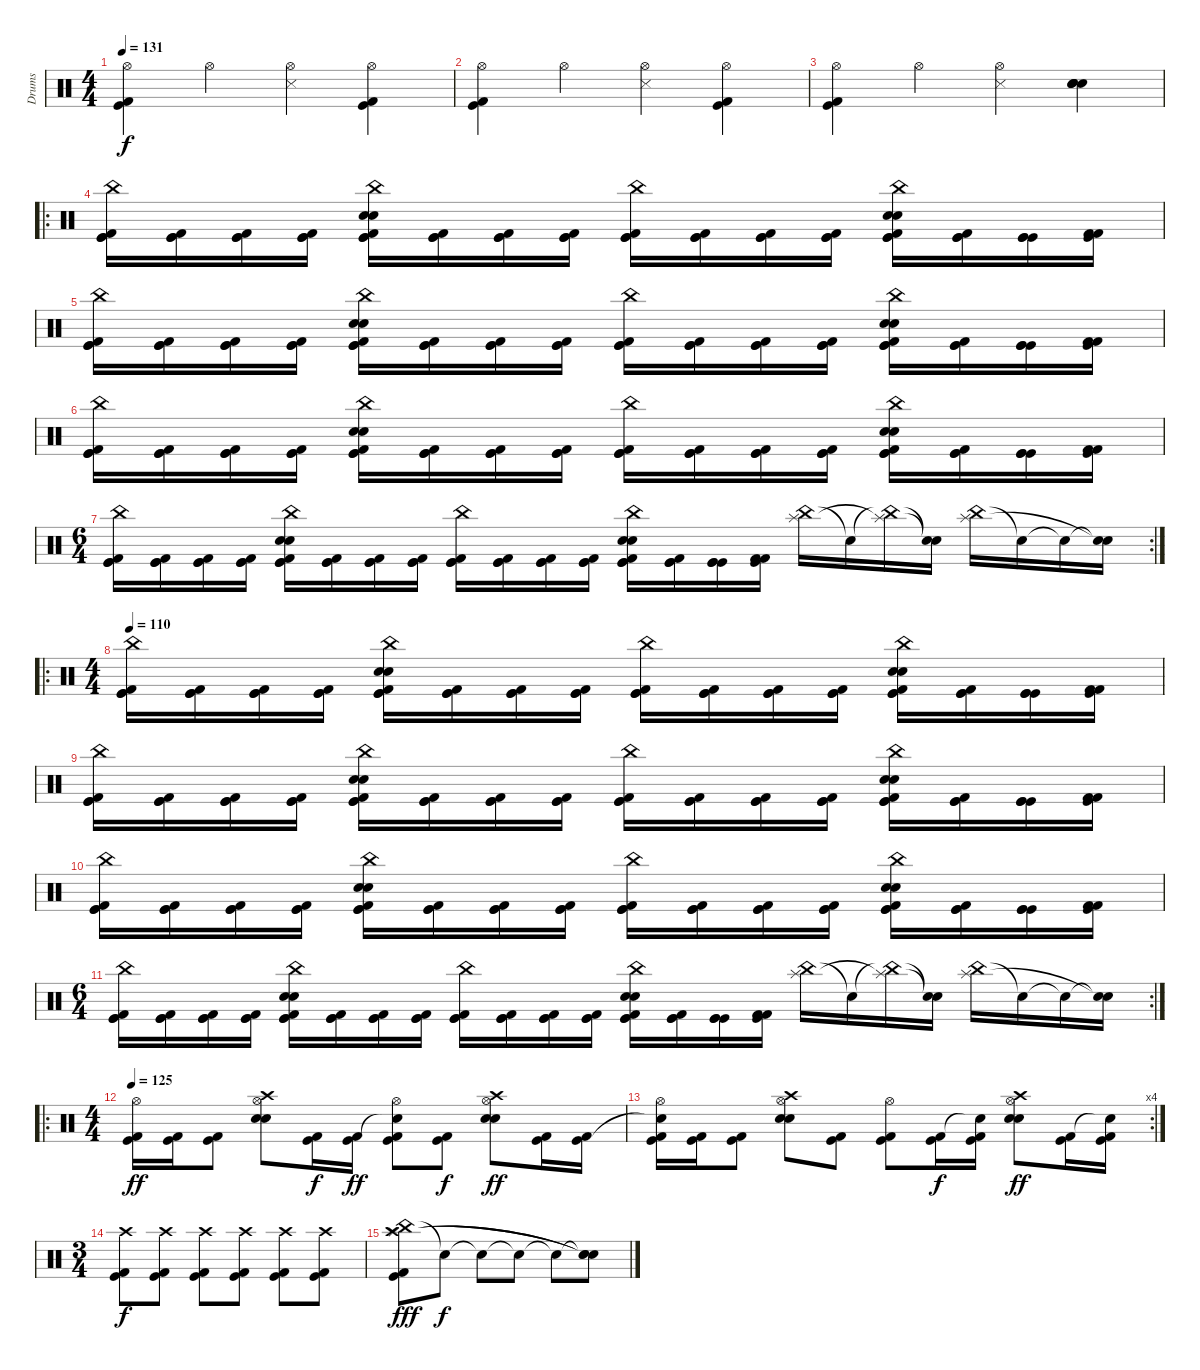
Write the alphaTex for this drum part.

\track ("Drums" "Drums") {instrument percussion}
\staff {score}
\articulation defaults
\ts (4 4)
\tempo 131
\clef neutral
\ks c
("Hi-Hat (open)" "Kick (hit)" "Kick (hit) 2").4{dy f} "Hi-Hat (open)".4 ("Hi-Hat (open)" "Snare (side stick) 3").4 ("Hi-Hat (open)" "Kick (hit)" "Kick (hit) 2").4 |
("Hi-Hat (open)" "Kick (hit)" "Kick (hit) 2").4 "Hi-Hat (open)".4 ("Hi-Hat (open)" "Snare (side stick) 3").4 ("Hi-Hat (open)" "Kick (hit)" "Kick (hit) 2").4 |
("Hi-Hat (open)" "Kick (hit)" "Kick (hit) 2").4 "Hi-Hat (open)".4 ("Hi-Hat (open)" "Snare (side stick) 3").4 ("Snare (hit) 2" "Snare (hit) 2" "Electric Snare (hit)" "Electric Snare (hit)").4 |
\ro
("China (hit)" "Kick (hit)" "Kick (hit) 2" "Kick (hit)").16 ("Kick (hit)" "Kick (hit)" "Kick (hit) 2").16 ("Kick (hit)" "Kick (hit)" "Kick (hit) 2").16 ("Kick (hit)" "Kick (hit)" "Kick (hit) 2").16 ("China (hit)" "Kick (hit)" "Snare (hit) 2" "Electric Snare (hit)" "Kick (hit) 2" "Kick (hit)").16 ("Kick (hit)" "Kick (hit) 2" "Kick (hit)").16 ("Kick (hit)" "Kick (hit) 2" "Kick (hit)").16 ("Kick (hit)" "Kick (hit) 2" "Kick (hit)").16 ("China (hit)" "Kick (hit)" "Kick (hit) 2" "Kick (hit)").16 ("Kick (hit)" "Kick (hit) 2" "Kick (hit)").16 ("Kick (hit)" "Kick (hit) 2" "Kick (hit)").16 ("Kick (hit)" "Kick (hit)" "Kick (hit) 2").16 ("China (hit)" "Kick (hit)" "Snare (hit) 2" "Electric Snare (hit)" "Kick (hit) 2" "Kick (hit)").16 ("Kick (hit)" "Kick (hit) 2" "Kick (hit)").16 ("Kick (hit)" "Kick (hit)" "Kick (hit)").16 ("Kick (hit)" "Kick (hit) 2" "Kick (hit) 2").16 |
("China (hit)" "Kick (hit)" "Kick (hit) 2" "Kick (hit)").16 ("Kick (hit)" "Kick (hit)" "Kick (hit) 2").16 ("Kick (hit)" "Kick (hit)" "Kick (hit) 2").16 ("Kick (hit)" "Kick (hit)" "Kick (hit) 2").16 ("China (hit)" "Kick (hit)" "Snare (hit) 2" "Electric Snare (hit)" "Kick (hit) 2" "Kick (hit)").16 ("Kick (hit)" "Kick (hit) 2" "Kick (hit)").16 ("Kick (hit)" "Kick (hit) 2" "Kick (hit)").16 ("Kick (hit)" "Kick (hit) 2" "Kick (hit)").16 ("China (hit)" "Kick (hit)" "Kick (hit) 2" "Kick (hit)").16 ("Kick (hit)" "Kick (hit) 2" "Kick (hit)").16 ("Kick (hit)" "Kick (hit) 2" "Kick (hit)").16 ("Kick (hit)" "Kick (hit)" "Kick (hit) 2").16 ("China (hit)" "Kick (hit)" "Snare (hit) 2" "Electric Snare (hit)" "Kick (hit) 2" "Kick (hit)").16 ("Kick (hit)" "Kick (hit) 2" "Kick (hit)").16 ("Kick (hit)" "Kick (hit)" "Kick (hit)").16 ("Kick (hit)" "Kick (hit) 2" "Kick (hit) 2").16 |
("China (hit)" "Kick (hit)" "Kick (hit) 2" "Kick (hit)").16 ("Kick (hit)" "Kick (hit)" "Kick (hit) 2").16 ("Kick (hit)" "Kick (hit)" "Kick (hit) 2").16 ("Kick (hit)" "Kick (hit)" "Kick (hit) 2").16 ("China (hit)" "Kick (hit)" "Snare (hit) 2" "Electric Snare (hit)" "Kick (hit) 2" "Kick (hit)").16 ("Kick (hit)" "Kick (hit) 2" "Kick (hit)").16 ("Kick (hit)" "Kick (hit) 2" "Kick (hit)").16 ("Kick (hit)" "Kick (hit) 2" "Kick (hit)").16 ("China (hit)" "Kick (hit)" "Kick (hit) 2" "Kick (hit)").16 ("Kick (hit)" "Kick (hit) 2" "Kick (hit)").16 ("Kick (hit)" "Kick (hit) 2" "Kick (hit)").16 ("Kick (hit)" "Kick (hit)" "Kick (hit) 2").16 ("China (hit)" "Kick (hit)" "Snare (hit) 2" "Electric Snare (hit)" "Kick (hit) 2" "Kick (hit)").16 ("Kick (hit)" "Kick (hit) 2" "Kick (hit)").16 ("Kick (hit)" "Kick (hit)" "Kick (hit)").16 ("Kick (hit)" "Kick (hit) 2" "Kick (hit) 2").16 |
\rc 2
\ts (6 4)
("China (hit)" "Kick (hit)" "Kick (hit) 2" "Kick (hit)").16 ("Kick (hit)" "Kick (hit)" "Kick (hit) 2").16 ("Kick (hit)" "Kick (hit)" "Kick (hit) 2").16 ("Kick (hit)" "Kick (hit)" "Kick (hit) 2").16 ("China (hit)" "Kick (hit)" "Snare (hit) 2" "Electric Snare (hit)" "Kick (hit) 2" "Kick (hit)").16 ("Kick (hit)" "Kick (hit) 2" "Kick (hit)").16 ("Kick (hit)" "Kick (hit) 2" "Kick (hit)").16 ("Kick (hit)" "Kick (hit) 2" "Kick (hit)").16 ("China (hit)" "Kick (hit)" "Kick (hit) 2" "Kick (hit)").16 ("Kick (hit)" "Kick (hit) 2" "Kick (hit)").16 ("Kick (hit)" "Kick (hit) 2" "Kick (hit)").16 ("Kick (hit)" "Kick (hit)" "Kick (hit) 2").16 ("China (hit)" "Kick (hit)" "Snare (hit) 2" "Electric Snare (hit)" "Kick (hit) 2" "Kick (hit)").16 ("Kick (hit)" "Kick (hit) 2" "Kick (hit)").16 ("Kick (hit)" "Kick (hit)" "Kick (hit)").16 ("Kick (hit)" "Kick (hit) 2" "Kick (hit) 2").16 ("China (hit)" "Splash (hit)").16 "Snare (hit)"{t}.16 ("China (hit)"{t} "Splash (hit)"{t}).16 ("Snare (hit)"{t} "Snare (hit)"{t}).16 ("China (hit)" "Splash (hit)").16 "Snare (hit)"{t}.16 "Snare (hit)"{t}.16 ("Snare (hit)"{t} "Snare (hit)"{t}).16 |
\ro
\ts (4 4)
\tempo 110
("China (hit)" "Kick (hit)" "Kick (hit) 2" "Kick (hit)").16 ("Kick (hit)" "Kick (hit)" "Kick (hit) 2").16 ("Kick (hit)" "Kick (hit)" "Kick (hit) 2").16 ("Kick (hit)" "Kick (hit)" "Kick (hit) 2").16 ("China (hit)" "Kick (hit)" "Snare (hit) 2" "Electric Snare (hit)" "Kick (hit) 2" "Kick (hit)").16 ("Kick (hit)" "Kick (hit) 2" "Kick (hit)").16 ("Kick (hit)" "Kick (hit) 2" "Kick (hit)").16 ("Kick (hit)" "Kick (hit) 2" "Kick (hit)").16 ("China (hit)" "Kick (hit)" "Kick (hit) 2" "Kick (hit)").16 ("Kick (hit)" "Kick (hit) 2" "Kick (hit)").16 ("Kick (hit)" "Kick (hit) 2" "Kick (hit)").16 ("Kick (hit)" "Kick (hit)" "Kick (hit) 2").16 ("China (hit)" "Kick (hit)" "Snare (hit) 2" "Electric Snare (hit)" "Kick (hit) 2" "Kick (hit)").16 ("Kick (hit)" "Kick (hit) 2" "Kick (hit)").16 ("Kick (hit)" "Kick (hit)" "Kick (hit)").16 ("Kick (hit)" "Kick (hit) 2" "Kick (hit) 2").16 |
("China (hit)" "Kick (hit)" "Kick (hit) 2" "Kick (hit)").16 ("Kick (hit)" "Kick (hit)" "Kick (hit) 2").16 ("Kick (hit)" "Kick (hit)" "Kick (hit) 2").16 ("Kick (hit)" "Kick (hit)" "Kick (hit) 2").16 ("China (hit)" "Kick (hit)" "Snare (hit) 2" "Electric Snare (hit)" "Kick (hit) 2" "Kick (hit)").16 ("Kick (hit)" "Kick (hit) 2" "Kick (hit)").16 ("Kick (hit)" "Kick (hit) 2" "Kick (hit)").16 ("Kick (hit)" "Kick (hit) 2" "Kick (hit)").16 ("China (hit)" "Kick (hit)" "Kick (hit) 2" "Kick (hit)").16 ("Kick (hit)" "Kick (hit) 2" "Kick (hit)").16 ("Kick (hit)" "Kick (hit) 2" "Kick (hit)").16 ("Kick (hit)" "Kick (hit)" "Kick (hit) 2").16 ("China (hit)" "Kick (hit)" "Snare (hit) 2" "Electric Snare (hit)" "Kick (hit) 2" "Kick (hit)").16 ("Kick (hit)" "Kick (hit) 2" "Kick (hit)").16 ("Kick (hit)" "Kick (hit)" "Kick (hit)").16 ("Kick (hit)" "Kick (hit) 2" "Kick (hit) 2").16 |
("China (hit)" "Kick (hit)" "Kick (hit) 2" "Kick (hit)").16 ("Kick (hit)" "Kick (hit)" "Kick (hit) 2").16 ("Kick (hit)" "Kick (hit)" "Kick (hit) 2").16 ("Kick (hit)" "Kick (hit)" "Kick (hit) 2").16 ("China (hit)" "Kick (hit)" "Snare (hit) 2" "Electric Snare (hit)" "Kick (hit) 2" "Kick (hit)").16 ("Kick (hit)" "Kick (hit) 2" "Kick (hit)").16 ("Kick (hit)" "Kick (hit) 2" "Kick (hit)").16 ("Kick (hit)" "Kick (hit) 2" "Kick (hit)").16 ("China (hit)" "Kick (hit)" "Kick (hit) 2" "Kick (hit)").16 ("Kick (hit)" "Kick (hit) 2" "Kick (hit)").16 ("Kick (hit)" "Kick (hit) 2" "Kick (hit)").16 ("Kick (hit)" "Kick (hit)" "Kick (hit) 2").16 ("China (hit)" "Kick (hit)" "Snare (hit) 2" "Electric Snare (hit)" "Kick (hit) 2" "Kick (hit)").16 ("Kick (hit)" "Kick (hit) 2" "Kick (hit)").16 ("Kick (hit)" "Kick (hit)" "Kick (hit)").16 ("Kick (hit)" "Kick (hit) 2" "Kick (hit) 2").16 |
\rc 2
\ts (6 4)
("China (hit)" "Kick (hit)" "Kick (hit) 2" "Kick (hit)").16 ("Kick (hit)" "Kick (hit)" "Kick (hit) 2").16 ("Kick (hit)" "Kick (hit)" "Kick (hit) 2").16 ("Kick (hit)" "Kick (hit)" "Kick (hit) 2").16 ("China (hit)" "Kick (hit)" "Snare (hit) 2" "Electric Snare (hit)" "Kick (hit) 2" "Kick (hit)").16 ("Kick (hit)" "Kick (hit) 2" "Kick (hit)").16 ("Kick (hit)" "Kick (hit) 2" "Kick (hit)").16 ("Kick (hit)" "Kick (hit) 2" "Kick (hit)").16 ("China (hit)" "Kick (hit)" "Kick (hit) 2" "Kick (hit)").16 ("Kick (hit)" "Kick (hit) 2" "Kick (hit)").16 ("Kick (hit)" "Kick (hit) 2" "Kick (hit)").16 ("Kick (hit)" "Kick (hit)" "Kick (hit) 2").16 ("China (hit)" "Kick (hit)" "Snare (hit) 2" "Electric Snare (hit)" "Kick (hit) 2" "Kick (hit)").16 ("Kick (hit)" "Kick (hit) 2" "Kick (hit)").16 ("Kick (hit)" "Kick (hit)" "Kick (hit)").16 ("Kick (hit)" "Kick (hit) 2" "Kick (hit) 2").16 ("China (hit)" "Splash (hit)").16 "Snare (hit)"{t}.16 ("China (hit)"{t} "Splash (hit)"{t}).16 ("Snare (hit)"{t} "Snare (hit)"{t}).16 ("China (hit)" "Splash (hit)").16 "Snare (hit)"{t}.16 "Snare (hit)"{t}.16 ("Snare (hit)"{t} "Snare (hit)"{t}).16 |
\ro
\ts (4 4)
\tempo 125
("Hi-Hat (open)" "Kick (hit)" "Kick (hit) 2").16{dy ff} ("Kick (hit) 2" "Kick (hit)").16 ("Kick (hit)" "Kick (hit) 2").8 ("Hi-Hat (open)" "Crash high (hit)" "Snare (hit) 2" "Electric Snare (hit)").8 ("Kick (hit)" "Kick (hit) 2").16{dy f} ("Kick (hit) 2" "Kick (hit)").16{dy ff} ("Hi-Hat (open)" "Snare (hit)"{t} "Kick (hit)" "Kick (hit) 2").8 ("Kick (hit) 2" "Kick (hit)").8{dy f} ("Hi-Hat (open)" "Crash high (hit)" "Snare (hit) 2" "Electric Snare (hit)").8{dy ff} ("Kick (hit) 2" "Kick (hit)").16 ("Kick (hit) 2" "Kick (hit)").16 |
\rc 4
("Hi-Hat (open)" "Snare (hit)"{t} "Kick (hit)" "Kick (hit) 2").16 ("Kick (hit) 2" "Kick (hit)").16 ("Kick (hit)" "Kick (hit) 2").8 ("Hi-Hat (open)" "Crash high (hit)" "Snare (hit) 2" "Electric Snare (hit)").8 ("Kick (hit) 2" "Kick (hit)").8 ("Hi-Hat (open)" "Kick (hit)" "Kick (hit) 2").8 ("Kick (hit) 2" "Kick (hit)").16{dy f} ("Snare (hit)"{t} "Kick (hit) 2" "Kick (hit)").16 ("Hi-Hat (open)" "Crash high (hit)" "Snare (hit) 2" "Electric Snare (hit)").8{dy ff} ("Kick (hit) 2" "Kick (hit)").16 ("Snare (hit)"{t} "Kick (hit) 2" "Kick (hit)").16 |
\ts (3 4)
("Crash high (hit)" "Kick (hit) 2" "Kick (hit)").8{dy f} ("Crash high (hit)" "Kick (hit)" "Kick (hit) 2").8 ("Crash high (hit)" "Kick (hit)" "Kick (hit) 2").8 ("Crash high (hit)" "Kick (hit)" "Kick (hit) 2").8 ("Crash high (hit)" "Kick (hit) 2" "Kick (hit)").8 ("Crash high (hit)" "Kick (hit) 2" "Kick (hit)").8 |
("China (hit)" "Crash high (hit)" "Splash (hit)" "Kick (hit) 2" "Kick (hit)").8{dy fff} "Snare (hit)"{t}.8{dy f} "Snare (hit)"{t}.8 "Snare (hit)"{t}.8 "Snare (hit)"{t}.8 ("Snare (hit)"{t} "Snare (hit)"{t} "Snare (hit)"{t}).8
